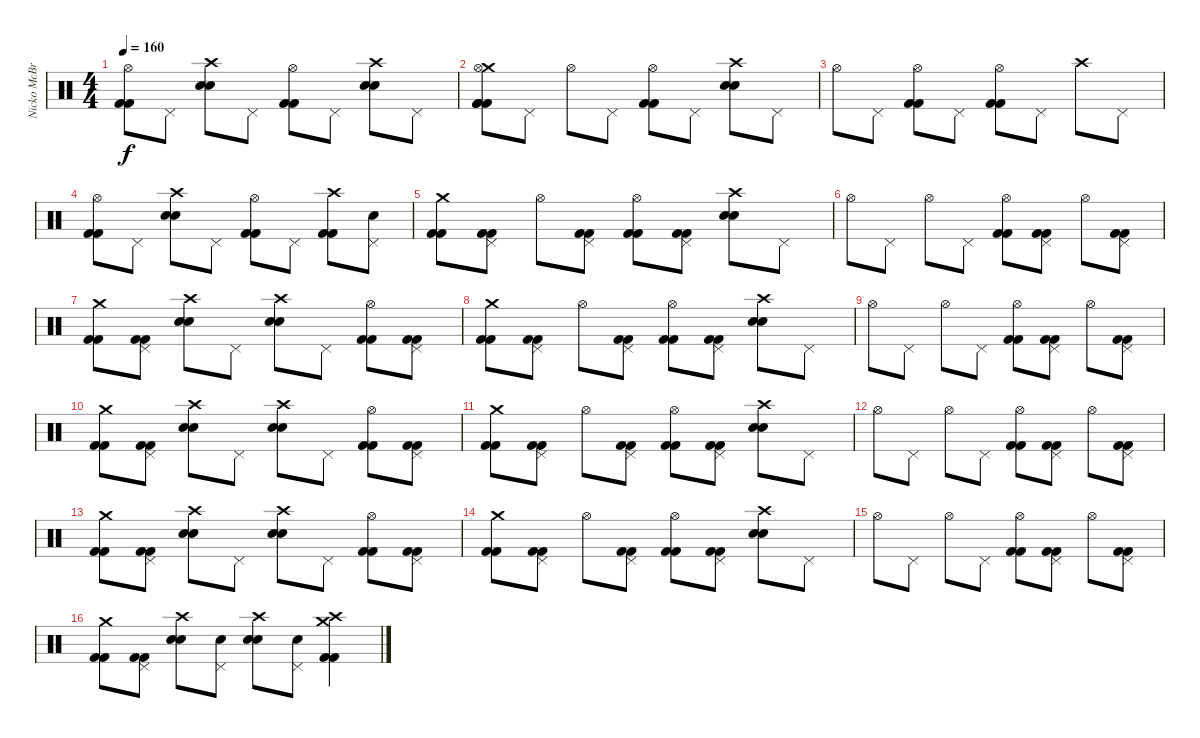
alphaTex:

\track ("Nicko McBrain" "Nicko McBr") {instrument percussion}
\staff {score}
\articulation defaults
\ts (4 4)
\tempo 160
\clef neutral
\ks c
("Hi-Hat (open)" "Kick (hit) 2" "Kick (hit) 2").8{dy f} "Pedal Hi-Hat (hit)".8 ("Crash high (hit)" "Snare (hit) 2" "Snare (hit) 2").8 "Pedal Hi-Hat (hit)".8 ("Hi-Hat (open)" "Kick (hit) 2" "Kick (hit) 2").8 "Pedal Hi-Hat (hit)".8 ("Crash high (hit)" "Snare (hit) 2" "Snare (hit) 2").8 "Pedal Hi-Hat (hit)".8 |
("Crash medium (hit)" "Hi-Hat (open)" "Kick (hit) 2" "Kick (hit) 2" "Kick (hit) 2").8 "Pedal Hi-Hat (hit)".8 "Hi-Hat (open)".8 "Pedal Hi-Hat (hit)".8 ("Hi-Hat (open)" "Kick (hit) 2" "Kick (hit) 2").8 "Pedal Hi-Hat (hit)".8 ("Crash high (hit)" "Snare (hit) 2" "Snare (hit) 2").8 "Pedal Hi-Hat (hit)".8 |
"Hi-Hat (open)".8 "Pedal Hi-Hat (hit)".8 ("Hi-Hat (open)" "Kick (hit) 2" "Kick (hit) 2").8 "Pedal Hi-Hat (hit)".8 ("Hi-Hat (open)" "Kick (hit) 2" "Kick (hit) 2").8 "Pedal Hi-Hat (hit)".8 "Crash high (hit)".8 "Pedal Hi-Hat (hit)".8 |
("Hi-Hat (open)" "Kick (hit) 2" "Kick (hit) 2").8 "Pedal Hi-Hat (hit)".8 ("Crash high (hit)" "Snare (hit) 2" "Snare (hit) 2").8 "Pedal Hi-Hat (hit)".8 ("Hi-Hat (open)" "Kick (hit) 2" "Kick (hit) 2").8 "Pedal Hi-Hat (hit)".8 ("Crash high (hit)" "Kick (hit) 2" "Kick (hit) 2").8 ("Pedal Hi-Hat (hit)" "Snare (hit) 2").8 |
("Crash medium (hit)" "Kick (hit) 2" "Kick (hit) 2").8 ("Pedal Hi-Hat (hit)" "Kick (hit) 2" "Kick (hit) 2").8 "Hi-Hat (open)".8 ("Pedal Hi-Hat (hit)" "Kick (hit) 2" "Kick (hit) 2").8 ("Hi-Hat (open)" "Kick (hit) 2" "Kick (hit) 2").8 ("Pedal Hi-Hat (hit)" "Kick (hit) 2" "Kick (hit) 2").8 ("Crash high (hit)" "Snare (hit) 2" "Snare (hit) 2").8 "Pedal Hi-Hat (hit)".8 |
"Hi-Hat (open)".8 "Pedal Hi-Hat (hit)".8 "Hi-Hat (open)".8 "Pedal Hi-Hat (hit)".8 ("Hi-Hat (open)" "Kick (hit) 2" "Kick (hit) 2").8 ("Pedal Hi-Hat (hit)" "Kick (hit) 2" "Kick (hit) 2").8 "Hi-Hat (open)".8 ("Pedal Hi-Hat (hit)" "Kick (hit) 2" "Kick (hit) 2").8 |
("Crash medium (hit)" "Kick (hit) 2" "Kick (hit) 2").8 ("Pedal Hi-Hat (hit)" "Kick (hit) 2" "Kick (hit) 2").8 ("Crash high (hit)" "Snare (hit) 2" "Snare (hit) 2").8 "Pedal Hi-Hat (hit)".8 ("Crash high (hit)" "Snare (hit) 2" "Snare (hit) 2").8 "Pedal Hi-Hat (hit)".8 ("Hi-Hat (open)" "Kick (hit) 2" "Kick (hit) 2").8 ("Pedal Hi-Hat (hit)" "Kick (hit) 2" "Kick (hit) 2").8 |
("Crash medium (hit)" "Kick (hit) 2" "Kick (hit) 2").8 ("Pedal Hi-Hat (hit)" "Kick (hit) 2" "Kick (hit) 2").8 "Hi-Hat (open)".8 ("Pedal Hi-Hat (hit)" "Kick (hit) 2" "Kick (hit) 2").8 ("Hi-Hat (open)" "Kick (hit) 2" "Kick (hit) 2").8 ("Pedal Hi-Hat (hit)" "Kick (hit) 2" "Kick (hit) 2").8 ("Crash high (hit)" "Snare (hit) 2" "Snare (hit) 2").8 "Pedal Hi-Hat (hit)".8 |
"Hi-Hat (open)".8 "Pedal Hi-Hat (hit)".8 "Hi-Hat (open)".8 "Pedal Hi-Hat (hit)".8 ("Hi-Hat (open)" "Kick (hit) 2" "Kick (hit) 2").8 ("Pedal Hi-Hat (hit)" "Kick (hit) 2" "Kick (hit) 2").8 "Hi-Hat (open)".8 ("Pedal Hi-Hat (hit)" "Kick (hit) 2" "Kick (hit) 2").8 |
("Crash medium (hit)" "Kick (hit) 2" "Kick (hit) 2").8 ("Pedal Hi-Hat (hit)" "Kick (hit) 2" "Kick (hit) 2").8 ("Crash high (hit)" "Snare (hit) 2" "Snare (hit) 2").8 "Pedal Hi-Hat (hit)".8 ("Crash high (hit)" "Snare (hit) 2" "Snare (hit) 2").8 "Pedal Hi-Hat (hit)".8 ("Hi-Hat (open)" "Kick (hit) 2" "Kick (hit) 2").8 ("Pedal Hi-Hat (hit)" "Kick (hit) 2" "Kick (hit) 2").8 |
("Crash medium (hit)" "Kick (hit) 2" "Kick (hit) 2").8 ("Pedal Hi-Hat (hit)" "Kick (hit) 2" "Kick (hit) 2").8 "Hi-Hat (open)".8 ("Pedal Hi-Hat (hit)" "Kick (hit) 2" "Kick (hit) 2").8 ("Hi-Hat (open)" "Kick (hit) 2" "Kick (hit) 2").8 ("Pedal Hi-Hat (hit)" "Kick (hit) 2" "Kick (hit) 2").8 ("Crash high (hit)" "Snare (hit) 2" "Snare (hit) 2").8 "Pedal Hi-Hat (hit)".8 |
"Hi-Hat (open)".8 "Pedal Hi-Hat (hit)".8 "Hi-Hat (open)".8 "Pedal Hi-Hat (hit)".8 ("Hi-Hat (open)" "Kick (hit) 2" "Kick (hit) 2").8 ("Pedal Hi-Hat (hit)" "Kick (hit) 2" "Kick (hit) 2").8 "Hi-Hat (open)".8 ("Pedal Hi-Hat (hit)" "Kick (hit) 2" "Kick (hit) 2").8 |
("Crash medium (hit)" "Kick (hit) 2" "Kick (hit) 2").8 ("Pedal Hi-Hat (hit)" "Kick (hit) 2" "Kick (hit) 2").8 ("Crash high (hit)" "Snare (hit) 2" "Snare (hit) 2").8 "Pedal Hi-Hat (hit)".8 ("Crash high (hit)" "Snare (hit) 2" "Snare (hit) 2").8 "Pedal Hi-Hat (hit)".8 ("Hi-Hat (open)" "Kick (hit) 2" "Kick (hit) 2").8 ("Pedal Hi-Hat (hit)" "Kick (hit) 2" "Kick (hit) 2").8 |
("Crash medium (hit)" "Kick (hit) 2" "Kick (hit) 2").8 ("Pedal Hi-Hat (hit)" "Kick (hit) 2" "Kick (hit) 2").8 "Hi-Hat (open)".8 ("Pedal Hi-Hat (hit)" "Kick (hit) 2" "Kick (hit) 2").8 ("Hi-Hat (open)" "Kick (hit) 2" "Kick (hit) 2").8 ("Pedal Hi-Hat (hit)" "Kick (hit) 2" "Kick (hit) 2").8 ("Crash high (hit)" "Snare (hit) 2" "Snare (hit) 2").8 "Pedal Hi-Hat (hit)".8 |
"Hi-Hat (open)".8 "Pedal Hi-Hat (hit)".8 "Hi-Hat (open)".8 "Pedal Hi-Hat (hit)".8 ("Hi-Hat (open)" "Kick (hit) 2" "Kick (hit) 2").8 ("Pedal Hi-Hat (hit)" "Kick (hit) 2" "Kick (hit) 2").8 "Hi-Hat (open)".8 ("Pedal Hi-Hat (hit)" "Kick (hit) 2" "Kick (hit) 2").8 |
("Crash medium (hit)" "Kick (hit) 2" "Kick (hit) 2").8 ("Pedal Hi-Hat (hit)" "Kick (hit) 2" "Kick (hit) 2").8 ("Crash high (hit)" "Snare (hit) 2" "Snare (hit) 2").8 ("Pedal Hi-Hat (hit)" "Snare (hit) 2").8 ("Crash high (hit)" "Snare (hit) 2" "Snare (hit) 2").8 ("Pedal Hi-Hat (hit)" "Snare (hit) 2").8 ("Crash high (hit)" "Crash medium (hit)" "Kick (hit) 2" "Kick (hit) 2").4
